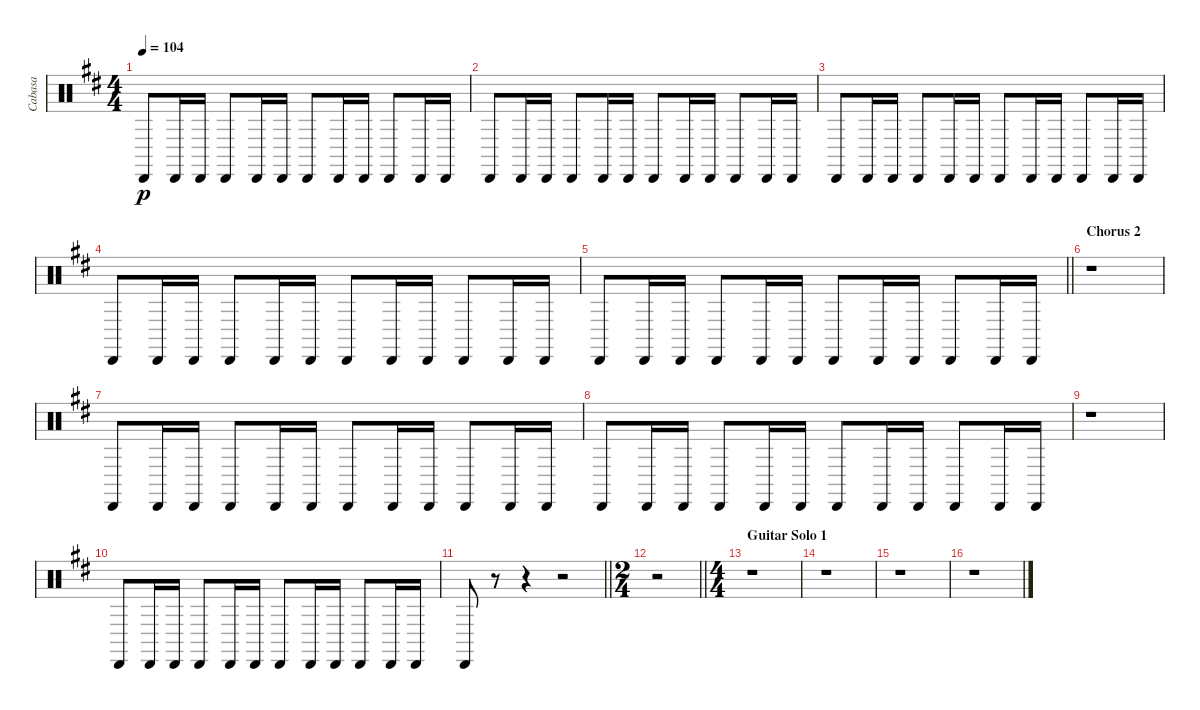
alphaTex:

\track ("Cabasa" "Cabasa") {instrument percussion}
\staff {score}
\articulation defaults
\ts (4 4)
\tempo 104
\clef neutral
\ks bminor "Cabasa (hit)".8{dy p} "Cabasa (hit)".16 "Cabasa (hit)".16 "Cabasa (hit)".8 "Cabasa (hit)".16 "Cabasa (hit)".16 "Cabasa (hit)".8 "Cabasa (hit)".16 "Cabasa (hit)".16 "Cabasa (hit)".8 "Cabasa (hit)".16 "Cabasa (hit)".16
|
"Cabasa (hit)".8 "Cabasa (hit)".16 "Cabasa (hit)".16 "Cabasa (hit)".8 "Cabasa (hit)".16 "Cabasa (hit)".16 "Cabasa (hit)".8 "Cabasa (hit)".16 "Cabasa (hit)".16 "Cabasa (hit)".8 "Cabasa (hit)".16 "Cabasa (hit)".16 |
"Cabasa (hit)".8 "Cabasa (hit)".16 "Cabasa (hit)".16 "Cabasa (hit)".8 "Cabasa (hit)".16 "Cabasa (hit)".16 "Cabasa (hit)".8 "Cabasa (hit)".16 "Cabasa (hit)".16 "Cabasa (hit)".8 "Cabasa (hit)".16 "Cabasa (hit)".16 |
"Cabasa (hit)".8 "Cabasa (hit)".16 "Cabasa (hit)".16 "Cabasa (hit)".8 "Cabasa (hit)".16 "Cabasa (hit)".16 "Cabasa (hit)".8 "Cabasa (hit)".16 "Cabasa (hit)".16 "Cabasa (hit)".8 "Cabasa (hit)".16 "Cabasa (hit)".16 |
\barLineRight lightlight "Cabasa (hit)".8 "Cabasa (hit)".16 "Cabasa (hit)".16 "Cabasa (hit)".8 "Cabasa (hit)".16 "Cabasa (hit)".16 "Cabasa (hit)".8 "Cabasa (hit)".16 "Cabasa (hit)".16 "Cabasa (hit)".8 "Cabasa (hit)".16 "Cabasa (hit)".16
|
\section ("" "Chorus 2")
r.1 |
"Cabasa (hit)".8 "Cabasa (hit)".16 "Cabasa (hit)".16 "Cabasa (hit)".8 "Cabasa (hit)".16 "Cabasa (hit)".16 "Cabasa (hit)".8 "Cabasa (hit)".16 "Cabasa (hit)".16 "Cabasa (hit)".8 "Cabasa (hit)".16 "Cabasa (hit)".16 |
"Cabasa (hit)".8 "Cabasa (hit)".16 "Cabasa (hit)".16 "Cabasa (hit)".8 "Cabasa (hit)".16 "Cabasa (hit)".16 "Cabasa (hit)".8 "Cabasa (hit)".16 "Cabasa (hit)".16 "Cabasa (hit)".8 "Cabasa (hit)".16 "Cabasa (hit)".16 |
r.1 |
"Cabasa (hit)".8 "Cabasa (hit)".16 "Cabasa (hit)".16 "Cabasa (hit)".8 "Cabasa (hit)".16 "Cabasa (hit)".16 "Cabasa (hit)".8 "Cabasa (hit)".16 "Cabasa (hit)".16 "Cabasa (hit)".8 "Cabasa (hit)".16 "Cabasa (hit)".16 |
\barLineRight lightlight "Cabasa (hit)".8
r.8 r.4 r.2 |
\ts (2 4)
\barLineRight lightlight
r.2 |
\ts (4 4)
\section ("" "Guitar Solo 1")
r.1 |
r.1 |
r.1 |
r.1
